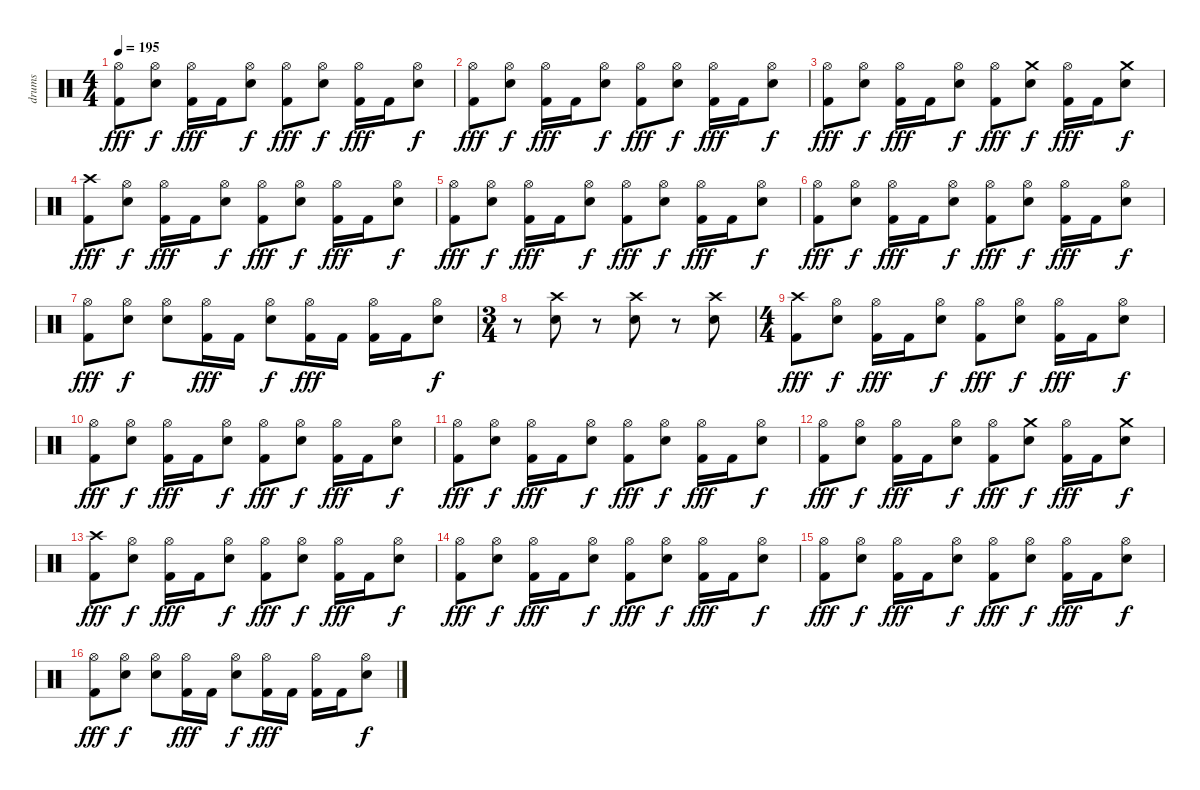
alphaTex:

\track ("drums" "drums") {instrument percussion}
\staff {score}
\articulation defaults
\ts (4 4)
\tempo 195
\clef neutral
\ks c
("Hi-Hat (open)" "Kick (hit) 2").8{dy fff} ("Hi-Hat (open)" "Snare (hit) 2").8{dy f} ("Hi-Hat (open)" "Kick (hit) 2").16{dy fff} "Kick (hit) 2".16 ("Hi-Hat (open)" "Snare (hit) 2").8{dy f} ("Hi-Hat (open)" "Kick (hit) 2").8{dy fff} ("Hi-Hat (open)" "Snare (hit) 2").8{dy f} ("Hi-Hat (open)" "Kick (hit) 2").16{dy fff} "Kick (hit) 2".16 ("Hi-Hat (open)" "Snare (hit) 2").8{dy f} |
("Hi-Hat (open)" "Kick (hit) 2").8{dy fff} ("Hi-Hat (open)" "Snare (hit) 2").8{dy f} ("Hi-Hat (open)" "Kick (hit) 2").16{dy fff} "Kick (hit) 2".16 ("Hi-Hat (open)" "Snare (hit) 2").8{dy f} ("Hi-Hat (open)" "Kick (hit) 2").8{dy fff} ("Hi-Hat (open)" "Snare (hit) 2").8{dy f} ("Hi-Hat (open)" "Kick (hit) 2").16{dy fff} "Kick (hit) 2".16 ("Hi-Hat (open)" "Snare (hit) 2").8{dy f} |
("Hi-Hat (open)" "Kick (hit) 2").8{dy fff} ("Hi-Hat (open)" "Snare (hit) 2").8{dy f} ("Hi-Hat (open)" "Kick (hit) 2").16{dy fff} "Kick (hit) 2".16 ("Hi-Hat (open)" "Snare (hit) 2").8{dy f} ("Hi-Hat (open)" "Kick (hit) 2").8{dy fff} ("Crash medium (hit)" "Snare (hit) 2").8{dy f} ("Hi-Hat (open)" "Kick (hit) 2").16{dy fff} "Kick (hit) 2".16 ("Crash medium (hit)" "Snare (hit) 2").8{dy f} |
("Crash high (hit)" "Kick (hit) 2").8{dy fff} ("Hi-Hat (open)" "Snare (hit) 2").8{dy f} ("Hi-Hat (open)" "Kick (hit) 2").16{dy fff} "Kick (hit) 2".16 ("Hi-Hat (open)" "Snare (hit) 2").8{dy f} ("Hi-Hat (open)" "Kick (hit) 2").8{dy fff} ("Hi-Hat (open)" "Snare (hit) 2").8{dy f} ("Hi-Hat (open)" "Kick (hit) 2").16{dy fff} "Kick (hit) 2".16 ("Hi-Hat (open)" "Snare (hit) 2").8{dy f} |
("Hi-Hat (open)" "Kick (hit) 2").8{dy fff} ("Hi-Hat (open)" "Snare (hit) 2").8{dy f} ("Hi-Hat (open)" "Kick (hit) 2").16{dy fff} "Kick (hit) 2".16 ("Hi-Hat (open)" "Snare (hit) 2").8{dy f} ("Hi-Hat (open)" "Kick (hit) 2").8{dy fff} ("Hi-Hat (open)" "Snare (hit) 2").8{dy f} ("Hi-Hat (open)" "Kick (hit) 2").16{dy fff} "Kick (hit) 2".16 ("Hi-Hat (open)" "Snare (hit) 2").8{dy f} |
("Hi-Hat (open)" "Kick (hit) 2").8{dy fff} ("Hi-Hat (open)" "Snare (hit) 2").8{dy f} ("Hi-Hat (open)" "Kick (hit) 2").16{dy fff} "Kick (hit) 2".16 ("Hi-Hat (open)" "Snare (hit) 2").8{dy f} ("Hi-Hat (open)" "Kick (hit) 2").8{dy fff} ("Hi-Hat (open)" "Snare (hit) 2").8{dy f} ("Hi-Hat (open)" "Kick (hit) 2").16{dy fff} "Kick (hit) 2".16 ("Hi-Hat (open)" "Snare (hit) 2").8{dy f} |
("Hi-Hat (open)" "Kick (hit) 2").8{dy fff} ("Hi-Hat (open)" "Snare (hit) 2").8{dy f} ("Hi-Hat (open)" "Snare (hit) 2").8 ("Hi-Hat (open)" "Kick (hit) 2").16{dy fff} "Kick (hit) 2".16 ("Hi-Hat (open)" "Snare (hit) 2").8{dy f} ("Hi-Hat (open)" "Kick (hit) 2").16{dy fff} "Kick (hit) 2".16 ("Hi-Hat (open)" "Kick (hit) 2").16 "Kick (hit) 2".16 ("Hi-Hat (open)" "Snare (hit) 2").8{dy f} |
\ts (3 4)
r.8 ("Crash high (hit)" "Snare (hit) 2").8 r.8 ("Crash high (hit)" "Snare (hit) 2").8 r.8 ("Crash high (hit)" "Snare (hit) 2").8 |
\ts (4 4)
("Crash high (hit)" "Kick (hit) 2").8{dy fff} ("Hi-Hat (open)" "Snare (hit) 2").8{dy f} ("Hi-Hat (open)" "Kick (hit) 2").16{dy fff} "Kick (hit) 2".16 ("Hi-Hat (open)" "Snare (hit) 2").8{dy f} ("Hi-Hat (open)" "Kick (hit) 2").8{dy fff} ("Hi-Hat (open)" "Snare (hit) 2").8{dy f} ("Hi-Hat (open)" "Kick (hit) 2").16{dy fff} "Kick (hit) 2".16 ("Hi-Hat (open)" "Snare (hit) 2").8{dy f} |
("Hi-Hat (open)" "Kick (hit) 2").8{dy fff} ("Hi-Hat (open)" "Snare (hit) 2").8{dy f} ("Hi-Hat (open)" "Kick (hit) 2").16{dy fff} "Kick (hit) 2".16 ("Hi-Hat (open)" "Snare (hit) 2").8{dy f} ("Hi-Hat (open)" "Kick (hit) 2").8{dy fff} ("Hi-Hat (open)" "Snare (hit) 2").8{dy f} ("Hi-Hat (open)" "Kick (hit) 2").16{dy fff} "Kick (hit) 2".16 ("Hi-Hat (open)" "Snare (hit) 2").8{dy f} |
("Hi-Hat (open)" "Kick (hit) 2").8{dy fff} ("Hi-Hat (open)" "Snare (hit) 2").8{dy f} ("Hi-Hat (open)" "Kick (hit) 2").16{dy fff} "Kick (hit) 2".16 ("Hi-Hat (open)" "Snare (hit) 2").8{dy f} ("Hi-Hat (open)" "Kick (hit) 2").8{dy fff} ("Hi-Hat (open)" "Snare (hit) 2").8{dy f} ("Hi-Hat (open)" "Kick (hit) 2").16{dy fff} "Kick (hit) 2".16 ("Hi-Hat (open)" "Snare (hit) 2").8{dy f} |
("Hi-Hat (open)" "Kick (hit) 2").8{dy fff} ("Hi-Hat (open)" "Snare (hit) 2").8{dy f} ("Hi-Hat (open)" "Kick (hit) 2").16{dy fff} "Kick (hit) 2".16 ("Hi-Hat (open)" "Snare (hit) 2").8{dy f} ("Hi-Hat (open)" "Kick (hit) 2").8{dy fff} ("Crash medium (hit)" "Snare (hit) 2").8{dy f} ("Hi-Hat (open)" "Kick (hit) 2").16{dy fff} "Kick (hit) 2".16 ("Crash medium (hit)" "Snare (hit) 2").8{dy f} |
("Crash high (hit)" "Kick (hit) 2").8{dy fff} ("Hi-Hat (open)" "Snare (hit) 2").8{dy f} ("Hi-Hat (open)" "Kick (hit) 2").16{dy fff} "Kick (hit) 2".16 ("Hi-Hat (open)" "Snare (hit) 2").8{dy f} ("Hi-Hat (open)" "Kick (hit) 2").8{dy fff} ("Hi-Hat (open)" "Snare (hit) 2").8{dy f} ("Hi-Hat (open)" "Kick (hit) 2").16{dy fff} "Kick (hit) 2".16 ("Hi-Hat (open)" "Snare (hit) 2").8{dy f} |
("Hi-Hat (open)" "Kick (hit) 2").8{dy fff} ("Hi-Hat (open)" "Snare (hit) 2").8{dy f} ("Hi-Hat (open)" "Kick (hit) 2").16{dy fff} "Kick (hit) 2".16 ("Hi-Hat (open)" "Snare (hit) 2").8{dy f} ("Hi-Hat (open)" "Kick (hit) 2").8{dy fff} ("Hi-Hat (open)" "Snare (hit) 2").8{dy f} ("Hi-Hat (open)" "Kick (hit) 2").16{dy fff} "Kick (hit) 2".16 ("Hi-Hat (open)" "Snare (hit) 2").8{dy f} |
("Hi-Hat (open)" "Kick (hit) 2").8{dy fff} ("Hi-Hat (open)" "Snare (hit) 2").8{dy f} ("Hi-Hat (open)" "Kick (hit) 2").16{dy fff} "Kick (hit) 2".16 ("Hi-Hat (open)" "Snare (hit) 2").8{dy f} ("Hi-Hat (open)" "Kick (hit) 2").8{dy fff} ("Hi-Hat (open)" "Snare (hit) 2").8{dy f} ("Hi-Hat (open)" "Kick (hit) 2").16{dy fff} "Kick (hit) 2".16 ("Hi-Hat (open)" "Snare (hit) 2").8{dy f} |
("Hi-Hat (open)" "Kick (hit) 2").8{dy fff} ("Hi-Hat (open)" "Snare (hit) 2").8{dy f} ("Hi-Hat (open)" "Snare (hit) 2").8 ("Hi-Hat (open)" "Kick (hit) 2").16{dy fff} "Kick (hit) 2".16 ("Hi-Hat (open)" "Snare (hit) 2").8{dy f} ("Hi-Hat (open)" "Kick (hit) 2").16{dy fff} "Kick (hit) 2".16 ("Hi-Hat (open)" "Kick (hit) 2").16 "Kick (hit) 2".16 ("Hi-Hat (open)" "Snare (hit) 2").8{dy f}
